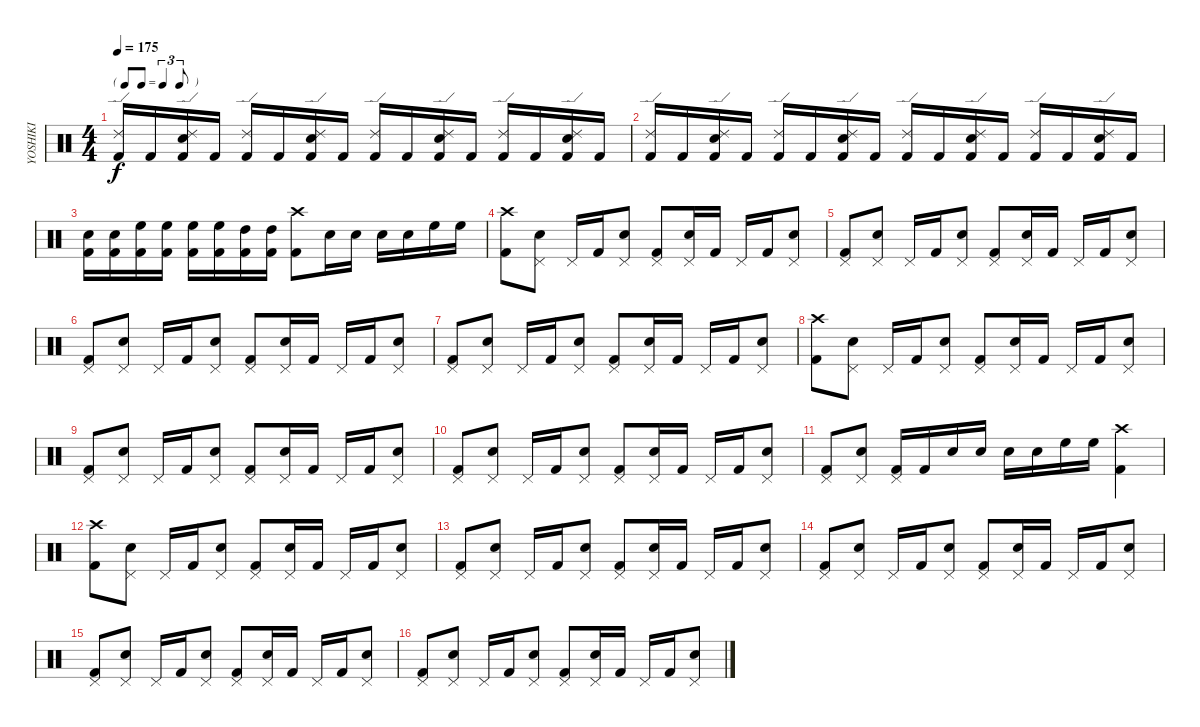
\track ("YOSHIKI" "YOSHIKI") {instrument percussion}
\staff {score}
\articulation defaults
\ts (4 4)
\tf triplet8th
\tempo 175
\clef neutral
\ks c
("Ride (edge) 2" "Kick (hit) 2").16{dy f} "Kick (hit) 2".16 ("Ride (edge) 2" "Snare (hit) 2" "Kick (hit) 2").16 "Kick (hit) 2".16 ("Ride (edge) 2" "Kick (hit) 2").16 "Kick (hit) 2".16 ("Ride (edge) 2" "Snare (hit) 2" "Kick (hit) 2").16 "Kick (hit) 2".16 ("Ride (edge) 2" "Kick (hit) 2").16 "Kick (hit) 2".16 ("Ride (edge) 2" "Snare (hit) 2" "Kick (hit) 2").16 "Kick (hit) 2".16 ("Ride (edge) 2" "Kick (hit) 2").16 "Kick (hit) 2".16 ("Ride (edge) 2" "Snare (hit) 2" "Kick (hit) 2").16 "Kick (hit) 2".16 |
("Ride (edge) 2" "Kick (hit) 2").16 "Kick (hit) 2".16 ("Ride (edge) 2" "Snare (hit) 2" "Kick (hit) 2").16 "Kick (hit) 2".16 ("Ride (edge) 2" "Kick (hit) 2").16 "Kick (hit) 2".16 ("Ride (edge) 2" "Snare (hit) 2" "Kick (hit) 2").16 "Kick (hit) 2".16 ("Ride (edge) 2" "Kick (hit) 2").16 "Kick (hit) 2".16 ("Ride (edge) 2" "Snare (hit) 2" "Kick (hit) 2").16 "Kick (hit) 2".16 ("Ride (edge) 2" "Kick (hit) 2").16 "Kick (hit) 2".16 ("Ride (edge) 2" "Snare (hit) 2" "Kick (hit) 2").16 "Kick (hit) 2".16 |
("Snare (hit) 2" "Kick (hit) 2").16 ("Snare (hit) 2" "Kick (hit) 2").16 ("High Floor Tom (hit)" "Kick (hit) 2").16 ("High Floor Tom (hit)" "Kick (hit) 2").16 ("High Floor Tom (hit)" "Kick (hit) 2").16 ("High Floor Tom (hit)" "Kick (hit) 2").16 ("High Tom (hit)" "Kick (hit) 2").16 ("High Tom (hit)" "Kick (hit) 2").16 ("Crash high (hit)" "Kick (hit) 2").8 "Snare (hit) 2".16 "Snare (hit) 2".16 "Snare (hit) 2".16 "Snare (hit) 2".16 "High Floor Tom (hit)".16 "High Floor Tom (hit)".16 |
("Crash high (hit)" "Kick (hit) 2").8 ("Pedal Hi-Hat (hit)" "Snare (hit) 2").8 "Pedal Hi-Hat (hit)".16 "Kick (hit) 2".16 ("Pedal Hi-Hat (hit)" "Snare (hit) 2").8 ("Pedal Hi-Hat (hit)" "Kick (hit) 2").8 ("Pedal Hi-Hat (hit)" "Snare (hit) 2").16 "Kick (hit) 2".16 "Pedal Hi-Hat (hit)".16 "Kick (hit) 2".16 ("Pedal Hi-Hat (hit)" "Snare (hit) 2").8 |
("Pedal Hi-Hat (hit)" "Kick (hit) 2").8 ("Pedal Hi-Hat (hit)" "Snare (hit) 2").8 "Pedal Hi-Hat (hit)".16 "Kick (hit) 2".16 ("Pedal Hi-Hat (hit)" "Snare (hit) 2").8 ("Pedal Hi-Hat (hit)" "Kick (hit) 2").8 ("Pedal Hi-Hat (hit)" "Snare (hit) 2").16 "Kick (hit) 2".16 "Pedal Hi-Hat (hit)".16 "Kick (hit) 2".16 ("Pedal Hi-Hat (hit)" "Snare (hit) 2").8 |
("Pedal Hi-Hat (hit)" "Kick (hit) 2").8 ("Pedal Hi-Hat (hit)" "Snare (hit) 2").8 "Pedal Hi-Hat (hit)".16 "Kick (hit) 2".16 ("Pedal Hi-Hat (hit)" "Snare (hit) 2").8 ("Pedal Hi-Hat (hit)" "Kick (hit) 2").8 ("Pedal Hi-Hat (hit)" "Snare (hit) 2").16 "Kick (hit) 2".16 "Pedal Hi-Hat (hit)".16 "Kick (hit) 2".16 ("Pedal Hi-Hat (hit)" "Snare (hit) 2").8 |
("Pedal Hi-Hat (hit)" "Kick (hit) 2").8 ("Pedal Hi-Hat (hit)" "Snare (hit) 2").8 "Pedal Hi-Hat (hit)".16 "Kick (hit) 2".16 ("Pedal Hi-Hat (hit)" "Snare (hit) 2").8 ("Pedal Hi-Hat (hit)" "Kick (hit) 2").8 ("Pedal Hi-Hat (hit)" "Snare (hit) 2").16 "Kick (hit) 2".16 "Pedal Hi-Hat (hit)".16 "Kick (hit) 2".16 ("Pedal Hi-Hat (hit)" "Snare (hit) 2").8 |
("Crash high (hit)" "Kick (hit) 2").8 ("Pedal Hi-Hat (hit)" "Snare (hit) 2").8 "Pedal Hi-Hat (hit)".16 "Kick (hit) 2".16 ("Pedal Hi-Hat (hit)" "Snare (hit) 2").8 ("Pedal Hi-Hat (hit)" "Kick (hit) 2").8 ("Pedal Hi-Hat (hit)" "Snare (hit) 2").16 "Kick (hit) 2".16 "Pedal Hi-Hat (hit)".16 "Kick (hit) 2".16 ("Pedal Hi-Hat (hit)" "Snare (hit) 2").8 |
("Pedal Hi-Hat (hit)" "Kick (hit) 2").8 ("Pedal Hi-Hat (hit)" "Snare (hit) 2").8 "Pedal Hi-Hat (hit)".16 "Kick (hit) 2".16 ("Pedal Hi-Hat (hit)" "Snare (hit) 2").8 ("Pedal Hi-Hat (hit)" "Kick (hit) 2").8 ("Pedal Hi-Hat (hit)" "Snare (hit) 2").16 "Kick (hit) 2".16 "Pedal Hi-Hat (hit)".16 "Kick (hit) 2".16 ("Pedal Hi-Hat (hit)" "Snare (hit) 2").8 |
("Pedal Hi-Hat (hit)" "Kick (hit) 2").8 ("Pedal Hi-Hat (hit)" "Snare (hit) 2").8 "Pedal Hi-Hat (hit)".16 "Kick (hit) 2".16 ("Pedal Hi-Hat (hit)" "Snare (hit) 2").8 ("Pedal Hi-Hat (hit)" "Kick (hit) 2").8 ("Pedal Hi-Hat (hit)" "Snare (hit) 2").16 "Kick (hit) 2".16 "Pedal Hi-Hat (hit)".16 "Kick (hit) 2".16 ("Pedal Hi-Hat (hit)" "Snare (hit) 2").8 |
("Pedal Hi-Hat (hit)" "Kick (hit) 2").8 ("Pedal Hi-Hat (hit)" "Snare (hit) 2").8 ("Pedal Hi-Hat (hit)" "Kick (hit) 2").16 "Kick (hit) 2".16 "Snare (hit) 2".16 "Snare (hit) 2".16 "Snare (hit) 2".16 "Snare (hit) 2".16 "High Floor Tom (hit)".16 "High Floor Tom (hit)".16 ("Crash high (hit)" "Kick (hit) 2").4 |
("Crash high (hit)" "Kick (hit) 2").8 ("Pedal Hi-Hat (hit)" "Snare (hit) 2").8 "Pedal Hi-Hat (hit)".16 "Kick (hit) 2".16 ("Pedal Hi-Hat (hit)" "Snare (hit) 2").8 ("Pedal Hi-Hat (hit)" "Kick (hit) 2").8 ("Pedal Hi-Hat (hit)" "Snare (hit) 2").16 "Kick (hit) 2".16 "Pedal Hi-Hat (hit)".16 "Kick (hit) 2".16 ("Pedal Hi-Hat (hit)" "Snare (hit) 2").8 |
("Pedal Hi-Hat (hit)" "Kick (hit) 2").8 ("Pedal Hi-Hat (hit)" "Snare (hit) 2").8 "Pedal Hi-Hat (hit)".16 "Kick (hit) 2".16 ("Pedal Hi-Hat (hit)" "Snare (hit) 2").8 ("Pedal Hi-Hat (hit)" "Kick (hit) 2").8 ("Pedal Hi-Hat (hit)" "Snare (hit) 2").16 "Kick (hit) 2".16 "Pedal Hi-Hat (hit)".16 "Kick (hit) 2".16 ("Pedal Hi-Hat (hit)" "Snare (hit) 2").8 |
("Pedal Hi-Hat (hit)" "Kick (hit) 2").8 ("Pedal Hi-Hat (hit)" "Snare (hit) 2").8 "Pedal Hi-Hat (hit)".16 "Kick (hit) 2".16 ("Pedal Hi-Hat (hit)" "Snare (hit) 2").8 ("Pedal Hi-Hat (hit)" "Kick (hit) 2").8 ("Pedal Hi-Hat (hit)" "Snare (hit) 2").16 "Kick (hit) 2".16 "Pedal Hi-Hat (hit)".16 "Kick (hit) 2".16 ("Pedal Hi-Hat (hit)" "Snare (hit) 2").8 |
("Pedal Hi-Hat (hit)" "Kick (hit) 2").8 ("Pedal Hi-Hat (hit)" "Snare (hit) 2").8 "Pedal Hi-Hat (hit)".16 "Kick (hit) 2".16 ("Pedal Hi-Hat (hit)" "Snare (hit) 2").8 ("Pedal Hi-Hat (hit)" "Kick (hit) 2").8 ("Pedal Hi-Hat (hit)" "Snare (hit) 2").16 "Kick (hit) 2".16 "Pedal Hi-Hat (hit)".16 "Kick (hit) 2".16 ("Pedal Hi-Hat (hit)" "Snare (hit) 2").8 |
("Pedal Hi-Hat (hit)" "Kick (hit) 2").8 ("Pedal Hi-Hat (hit)" "Snare (hit) 2").8 "Pedal Hi-Hat (hit)".16 "Kick (hit) 2".16 ("Pedal Hi-Hat (hit)" "Snare (hit) 2").8 ("Pedal Hi-Hat (hit)" "Kick (hit) 2").8 ("Pedal Hi-Hat (hit)" "Snare (hit) 2").16 "Kick (hit) 2".16 "Pedal Hi-Hat (hit)".16 "Kick (hit) 2".16 ("Pedal Hi-Hat (hit)" "Snare (hit) 2").8
